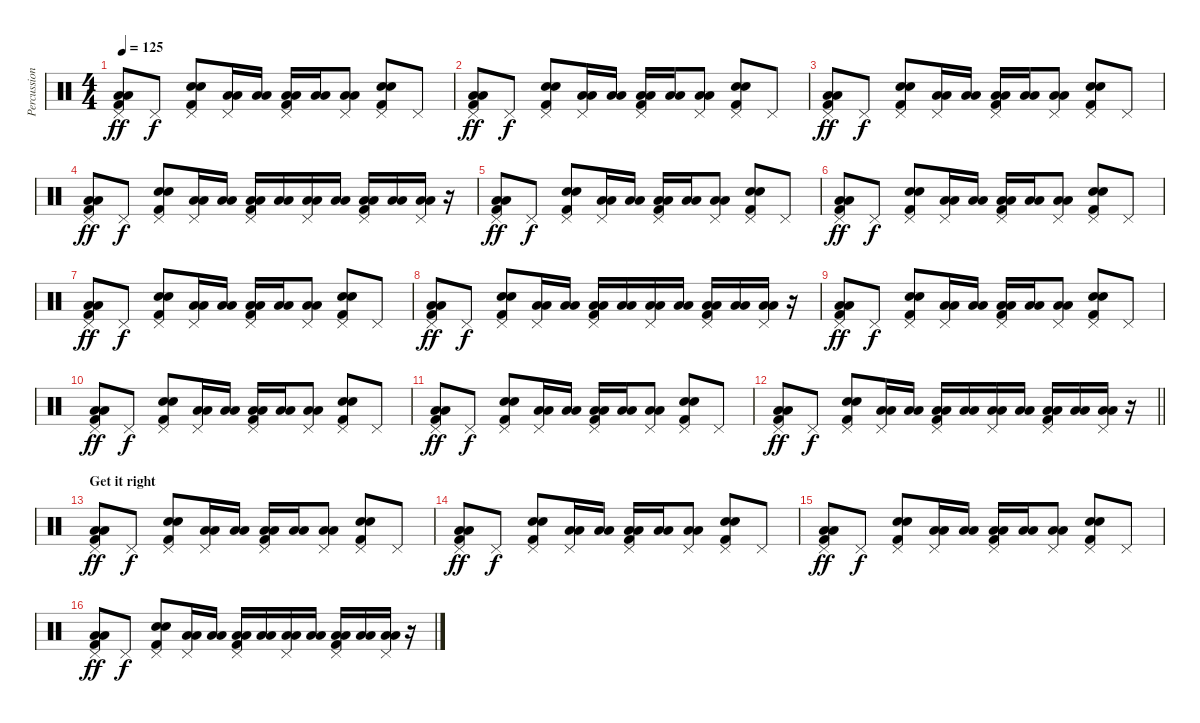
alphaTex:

\track ("Percussion2" "Percussion") {instrument percussion}
\staff {score}
\articulation defaults
\ts (4 4)
\tempo 125
\clef neutral
\ks c
("Pedal Hi-Hat (hit)" "Low Floor Tom (hit)" "Low Floor Tom (hit)" "Kick (hit) 2").8{dy ff} "Pedal Hi-Hat (hit)".8{dy f} ("Pedal Hi-Hat (hit)" "Electric Snare (hit)" "Electric Snare (hit)" "Kick (hit) 2").8 ("Pedal Hi-Hat (hit)" "Low Floor Tom (hit)" "Low Floor Tom (hit)").16 ("Low Tom (hit)" "Low Tom (hit)").16 ("Pedal Hi-Hat (hit)" "Low Floor Tom (hit)" "Low Floor Tom (hit)" "Kick (hit) 2").16 ("Low Floor Tom (hit)" "Low Floor Tom (hit)").16 ("Pedal Hi-Hat (hit)" "Low Floor Tom (hit)" "Low Floor Tom (hit)").8 ("Pedal Hi-Hat (hit)" "Electric Snare (hit)" "Electric Snare (hit)" "Kick (hit) 2").8 "Pedal Hi-Hat (hit)".8 |
("Pedal Hi-Hat (hit)" "Low Floor Tom (hit)" "Low Floor Tom (hit)" "Kick (hit) 2").8{dy ff} "Pedal Hi-Hat (hit)".8{dy f} ("Pedal Hi-Hat (hit)" "Electric Snare (hit)" "Electric Snare (hit)" "Kick (hit) 2").8 ("Pedal Hi-Hat (hit)" "Low Floor Tom (hit)" "Low Floor Tom (hit)").16 ("Low Tom (hit)" "Low Tom (hit)").16 ("Pedal Hi-Hat (hit)" "Low Floor Tom (hit)" "Low Floor Tom (hit)" "Kick (hit) 2").16 ("Low Floor Tom (hit)" "Low Floor Tom (hit)").16 ("Pedal Hi-Hat (hit)" "Low Floor Tom (hit)" "Low Floor Tom (hit)").8 ("Pedal Hi-Hat (hit)" "Electric Snare (hit)" "Electric Snare (hit)" "Kick (hit) 2").8 "Pedal Hi-Hat (hit)".8 |
("Pedal Hi-Hat (hit)" "Low Floor Tom (hit)" "Low Floor Tom (hit)" "Kick (hit) 2").8{dy ff} "Pedal Hi-Hat (hit)".8{dy f} ("Pedal Hi-Hat (hit)" "Electric Snare (hit)" "Electric Snare (hit)" "Kick (hit) 2").8 ("Pedal Hi-Hat (hit)" "Low Floor Tom (hit)" "Low Floor Tom (hit)").16 ("Low Tom (hit)" "Low Tom (hit)").16 ("Pedal Hi-Hat (hit)" "Low Floor Tom (hit)" "Low Floor Tom (hit)" "Kick (hit) 2").16 ("Low Floor Tom (hit)" "Low Floor Tom (hit)").16 ("Pedal Hi-Hat (hit)" "Low Floor Tom (hit)" "Low Floor Tom (hit)").8 ("Pedal Hi-Hat (hit)" "Electric Snare (hit)" "Electric Snare (hit)" "Kick (hit) 2").8 "Pedal Hi-Hat (hit)".8 |
("Pedal Hi-Hat (hit)" "Low Floor Tom (hit)" "Low Floor Tom (hit)" "Kick (hit) 2").8{dy ff} "Pedal Hi-Hat (hit)".8{dy f} ("Pedal Hi-Hat (hit)" "Electric Snare (hit)" "Electric Snare (hit)" "Kick (hit) 2").8 ("Pedal Hi-Hat (hit)" "Low Floor Tom (hit)" "Low Floor Tom (hit)").16 ("Low Tom (hit)" "Low Tom (hit)").16 ("Pedal Hi-Hat (hit)" "Low Floor Tom (hit)" "Low Floor Tom (hit)" "Kick (hit) 2").16 ("Low Floor Tom (hit)" "Low Floor Tom (hit)").16 ("Pedal Hi-Hat (hit)" "Low Floor Tom (hit)" "Low Floor Tom (hit)").16 ("Low Tom (hit)" "Low Tom (hit)").16 ("Pedal Hi-Hat (hit)" "Low Floor Tom (hit)" "Low Floor Tom (hit)" "Kick (hit) 2").16 ("Low Floor Tom (hit)" "Low Floor Tom (hit)").16 ("Pedal Hi-Hat (hit)" "Low Floor Tom (hit)" "Low Floor Tom (hit)").16 r.16 |
("Pedal Hi-Hat (hit)" "Low Floor Tom (hit)" "Low Floor Tom (hit)" "Kick (hit) 2").8{dy ff} "Pedal Hi-Hat (hit)".8{dy f} ("Pedal Hi-Hat (hit)" "Electric Snare (hit)" "Electric Snare (hit)" "Kick (hit) 2").8 ("Pedal Hi-Hat (hit)" "Low Floor Tom (hit)" "Low Floor Tom (hit)").16 ("Low Tom (hit)" "Low Tom (hit)").16 ("Pedal Hi-Hat (hit)" "Low Floor Tom (hit)" "Low Floor Tom (hit)" "Kick (hit) 2").16 ("Low Floor Tom (hit)" "Low Floor Tom (hit)").16 ("Pedal Hi-Hat (hit)" "Low Floor Tom (hit)" "Low Floor Tom (hit)").8 ("Pedal Hi-Hat (hit)" "Electric Snare (hit)" "Electric Snare (hit)" "Kick (hit) 2").8 "Pedal Hi-Hat (hit)".8 |
("Pedal Hi-Hat (hit)" "Low Floor Tom (hit)" "Low Floor Tom (hit)" "Kick (hit) 2").8{dy ff} "Pedal Hi-Hat (hit)".8{dy f} ("Pedal Hi-Hat (hit)" "Electric Snare (hit)" "Electric Snare (hit)" "Kick (hit) 2").8 ("Pedal Hi-Hat (hit)" "Low Floor Tom (hit)" "Low Floor Tom (hit)").16 ("Low Tom (hit)" "Low Tom (hit)").16 ("Pedal Hi-Hat (hit)" "Low Floor Tom (hit)" "Low Floor Tom (hit)" "Kick (hit) 2").16 ("Low Floor Tom (hit)" "Low Floor Tom (hit)").16 ("Pedal Hi-Hat (hit)" "Low Floor Tom (hit)" "Low Floor Tom (hit)").8 ("Pedal Hi-Hat (hit)" "Electric Snare (hit)" "Electric Snare (hit)" "Kick (hit) 2").8 "Pedal Hi-Hat (hit)".8 |
("Pedal Hi-Hat (hit)" "Low Floor Tom (hit)" "Low Floor Tom (hit)" "Kick (hit) 2").8{dy ff} "Pedal Hi-Hat (hit)".8{dy f} ("Pedal Hi-Hat (hit)" "Electric Snare (hit)" "Electric Snare (hit)" "Kick (hit) 2").8 ("Pedal Hi-Hat (hit)" "Low Floor Tom (hit)" "Low Floor Tom (hit)").16 ("Low Tom (hit)" "Low Tom (hit)").16 ("Pedal Hi-Hat (hit)" "Low Floor Tom (hit)" "Low Floor Tom (hit)" "Kick (hit) 2").16 ("Low Floor Tom (hit)" "Low Floor Tom (hit)").16 ("Pedal Hi-Hat (hit)" "Low Floor Tom (hit)" "Low Floor Tom (hit)").8 ("Pedal Hi-Hat (hit)" "Electric Snare (hit)" "Electric Snare (hit)" "Kick (hit) 2").8 "Pedal Hi-Hat (hit)".8 |
("Pedal Hi-Hat (hit)" "Low Floor Tom (hit)" "Low Floor Tom (hit)" "Kick (hit) 2").8{dy ff} "Pedal Hi-Hat (hit)".8{dy f} ("Pedal Hi-Hat (hit)" "Electric Snare (hit)" "Electric Snare (hit)" "Kick (hit) 2").8 ("Pedal Hi-Hat (hit)" "Low Floor Tom (hit)" "Low Floor Tom (hit)").16 ("Low Tom (hit)" "Low Tom (hit)").16 ("Pedal Hi-Hat (hit)" "Low Floor Tom (hit)" "Low Floor Tom (hit)" "Kick (hit) 2").16 ("Low Floor Tom (hit)" "Low Floor Tom (hit)").16 ("Pedal Hi-Hat (hit)" "Low Floor Tom (hit)" "Low Floor Tom (hit)").16 ("Low Tom (hit)" "Low Tom (hit)").16 ("Pedal Hi-Hat (hit)" "Low Floor Tom (hit)" "Low Floor Tom (hit)" "Kick (hit) 2").16 ("Low Floor Tom (hit)" "Low Floor Tom (hit)").16 ("Pedal Hi-Hat (hit)" "Low Floor Tom (hit)" "Low Floor Tom (hit)").16 r.16 |
("Pedal Hi-Hat (hit)" "Low Floor Tom (hit)" "Low Floor Tom (hit)" "Kick (hit) 2").8{dy ff} "Pedal Hi-Hat (hit)".8{dy f} ("Pedal Hi-Hat (hit)" "Electric Snare (hit)" "Electric Snare (hit)" "Kick (hit) 2").8 ("Pedal Hi-Hat (hit)" "Low Floor Tom (hit)" "Low Floor Tom (hit)").16 ("Low Tom (hit)" "Low Tom (hit)").16 ("Pedal Hi-Hat (hit)" "Low Floor Tom (hit)" "Low Floor Tom (hit)" "Kick (hit) 2").16 ("Low Floor Tom (hit)" "Low Floor Tom (hit)").16 ("Pedal Hi-Hat (hit)" "Low Floor Tom (hit)" "Low Floor Tom (hit)").8 ("Pedal Hi-Hat (hit)" "Electric Snare (hit)" "Electric Snare (hit)" "Kick (hit) 2").8 "Pedal Hi-Hat (hit)".8 |
("Pedal Hi-Hat (hit)" "Low Floor Tom (hit)" "Low Floor Tom (hit)" "Kick (hit) 2").8{dy ff} "Pedal Hi-Hat (hit)".8{dy f} ("Pedal Hi-Hat (hit)" "Electric Snare (hit)" "Electric Snare (hit)" "Kick (hit) 2").8 ("Pedal Hi-Hat (hit)" "Low Floor Tom (hit)" "Low Floor Tom (hit)").16 ("Low Tom (hit)" "Low Tom (hit)").16 ("Pedal Hi-Hat (hit)" "Low Floor Tom (hit)" "Low Floor Tom (hit)" "Kick (hit) 2").16 ("Low Floor Tom (hit)" "Low Floor Tom (hit)").16 ("Pedal Hi-Hat (hit)" "Low Floor Tom (hit)" "Low Floor Tom (hit)").8 ("Pedal Hi-Hat (hit)" "Electric Snare (hit)" "Electric Snare (hit)" "Kick (hit) 2").8 "Pedal Hi-Hat (hit)".8 |
("Pedal Hi-Hat (hit)" "Low Floor Tom (hit)" "Low Floor Tom (hit)" "Kick (hit) 2").8{dy ff} "Pedal Hi-Hat (hit)".8{dy f} ("Pedal Hi-Hat (hit)" "Electric Snare (hit)" "Electric Snare (hit)" "Kick (hit) 2").8 ("Pedal Hi-Hat (hit)" "Low Floor Tom (hit)" "Low Floor Tom (hit)").16 ("Low Tom (hit)" "Low Tom (hit)").16 ("Pedal Hi-Hat (hit)" "Low Floor Tom (hit)" "Low Floor Tom (hit)" "Kick (hit) 2").16 ("Low Floor Tom (hit)" "Low Floor Tom (hit)").16 ("Pedal Hi-Hat (hit)" "Low Floor Tom (hit)" "Low Floor Tom (hit)").8 ("Pedal Hi-Hat (hit)" "Electric Snare (hit)" "Electric Snare (hit)" "Kick (hit) 2").8 "Pedal Hi-Hat (hit)".8 |
\barLineRight lightlight
("Pedal Hi-Hat (hit)" "Low Floor Tom (hit)" "Low Floor Tom (hit)" "Kick (hit) 2").8{dy ff} "Pedal Hi-Hat (hit)".8{dy f} ("Pedal Hi-Hat (hit)" "Electric Snare (hit)" "Electric Snare (hit)" "Kick (hit) 2").8 ("Pedal Hi-Hat (hit)" "Low Floor Tom (hit)" "Low Floor Tom (hit)").16 ("Low Tom (hit)" "Low Tom (hit)").16 ("Pedal Hi-Hat (hit)" "Low Floor Tom (hit)" "Low Floor Tom (hit)" "Kick (hit) 2").16 ("Low Floor Tom (hit)" "Low Floor Tom (hit)").16 ("Pedal Hi-Hat (hit)" "Low Floor Tom (hit)" "Low Floor Tom (hit)").16 ("Low Tom (hit)" "Low Tom (hit)").16 ("Pedal Hi-Hat (hit)" "Low Floor Tom (hit)" "Low Floor Tom (hit)" "Kick (hit) 2").16 ("Low Floor Tom (hit)" "Low Floor Tom (hit)").16 ("Pedal Hi-Hat (hit)" "Low Floor Tom (hit)" "Low Floor Tom (hit)").16 r.16 |
\section ("" "Get it right")
("Pedal Hi-Hat (hit)" "Low Floor Tom (hit)" "Low Floor Tom (hit)" "Kick (hit) 2").8{dy ff} "Pedal Hi-Hat (hit)".8{dy f} ("Pedal Hi-Hat (hit)" "Electric Snare (hit)" "Electric Snare (hit)" "Kick (hit) 2").8 ("Pedal Hi-Hat (hit)" "Low Floor Tom (hit)" "Low Floor Tom (hit)").16 ("Low Tom (hit)" "Low Tom (hit)").16 ("Pedal Hi-Hat (hit)" "Low Floor Tom (hit)" "Low Floor Tom (hit)" "Kick (hit) 2").16 ("Low Floor Tom (hit)" "Low Floor Tom (hit)").16 ("Pedal Hi-Hat (hit)" "Low Floor Tom (hit)" "Low Floor Tom (hit)").8 ("Pedal Hi-Hat (hit)" "Electric Snare (hit)" "Electric Snare (hit)" "Kick (hit) 2").8 "Pedal Hi-Hat (hit)".8 |
("Pedal Hi-Hat (hit)" "Low Floor Tom (hit)" "Low Floor Tom (hit)" "Kick (hit) 2").8{dy ff} "Pedal Hi-Hat (hit)".8{dy f} ("Pedal Hi-Hat (hit)" "Electric Snare (hit)" "Electric Snare (hit)" "Kick (hit) 2").8 ("Pedal Hi-Hat (hit)" "Low Floor Tom (hit)" "Low Floor Tom (hit)").16 ("Low Tom (hit)" "Low Tom (hit)").16 ("Pedal Hi-Hat (hit)" "Low Floor Tom (hit)" "Low Floor Tom (hit)" "Kick (hit) 2").16 ("Low Floor Tom (hit)" "Low Floor Tom (hit)").16 ("Pedal Hi-Hat (hit)" "Low Floor Tom (hit)" "Low Floor Tom (hit)").8 ("Pedal Hi-Hat (hit)" "Electric Snare (hit)" "Electric Snare (hit)" "Kick (hit) 2").8 "Pedal Hi-Hat (hit)".8 |
("Pedal Hi-Hat (hit)" "Low Floor Tom (hit)" "Low Floor Tom (hit)" "Kick (hit) 2").8{dy ff} "Pedal Hi-Hat (hit)".8{dy f} ("Pedal Hi-Hat (hit)" "Electric Snare (hit)" "Electric Snare (hit)" "Kick (hit) 2").8 ("Pedal Hi-Hat (hit)" "Low Floor Tom (hit)" "Low Floor Tom (hit)").16 ("Low Tom (hit)" "Low Tom (hit)").16 ("Pedal Hi-Hat (hit)" "Low Floor Tom (hit)" "Low Floor Tom (hit)" "Kick (hit) 2").16 ("Low Floor Tom (hit)" "Low Floor Tom (hit)").16 ("Pedal Hi-Hat (hit)" "Low Floor Tom (hit)" "Low Floor Tom (hit)").8 ("Pedal Hi-Hat (hit)" "Electric Snare (hit)" "Electric Snare (hit)" "Kick (hit) 2").8 "Pedal Hi-Hat (hit)".8 |
("Pedal Hi-Hat (hit)" "Low Floor Tom (hit)" "Low Floor Tom (hit)" "Kick (hit) 2").8{dy ff} "Pedal Hi-Hat (hit)".8{dy f} ("Pedal Hi-Hat (hit)" "Electric Snare (hit)" "Electric Snare (hit)" "Kick (hit) 2").8 ("Pedal Hi-Hat (hit)" "Low Floor Tom (hit)" "Low Floor Tom (hit)").16 ("Low Tom (hit)" "Low Tom (hit)").16 ("Pedal Hi-Hat (hit)" "Low Floor Tom (hit)" "Low Floor Tom (hit)" "Kick (hit) 2").16 ("Low Floor Tom (hit)" "Low Floor Tom (hit)").16 ("Pedal Hi-Hat (hit)" "Low Floor Tom (hit)" "Low Floor Tom (hit)").16 ("Low Tom (hit)" "Low Tom (hit)").16 ("Pedal Hi-Hat (hit)" "Low Floor Tom (hit)" "Low Floor Tom (hit)" "Kick (hit) 2").16 ("Low Floor Tom (hit)" "Low Floor Tom (hit)").16 ("Pedal Hi-Hat (hit)" "Low Floor Tom (hit)" "Low Floor Tom (hit)").16 r.16
